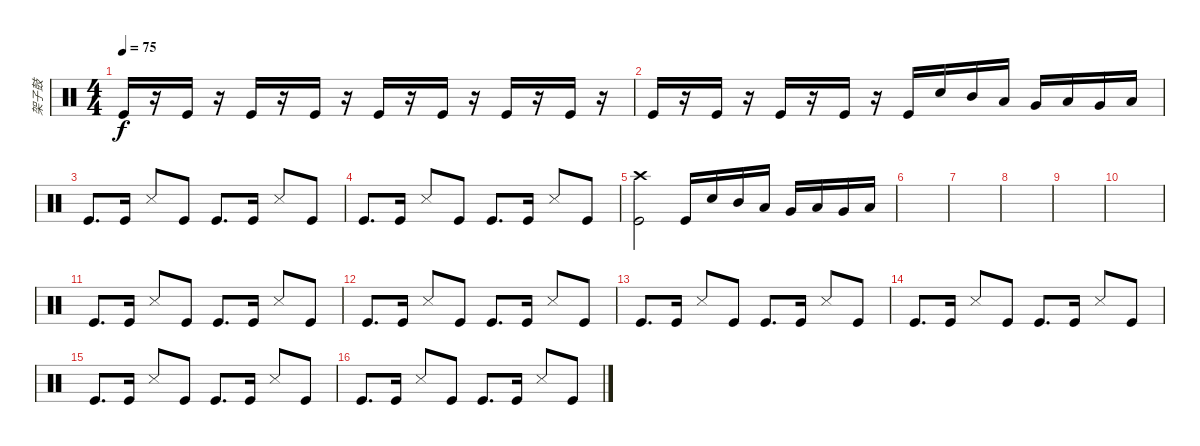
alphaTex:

\track ("架子鼓" "架子鼓") {instrument percussion}
\staff {score}
\articulation defaults
\ts (4 4)
\tempo 75
\clef neutral
\ks c "Kick (hit)".16{dy f}
r.16 "Kick (hit)".16 r.16 "Kick (hit)".16 r.16 "Kick (hit)".16 r.16 "Kick (hit)".16 r.16 "Kick (hit)".16 r.16 "Kick (hit)".16 r.16 "Kick (hit)".16 r.16 |
"Kick (hit)".16 r.16 "Kick (hit)".16 r.16 "Kick (hit)".16 r.16 "Kick (hit)".16 r.16 "Kick (hit)".16 "Snare (hit) 2".16 "Mid Tom (hit)".16 "Low Tom (hit)".16 "Very Low Tom (hit)".16 "Low Tom (hit)".16 "Very Low Tom (hit)".16 "Low Floor Tom (hit)".16 |
"Kick (hit)".8{d} "Kick (hit)".16 "Snare (side stick) 3".8 "Kick (hit)".8 "Kick (hit)".8{d} "Kick (hit)".16 "Snare (side stick) 3".8 "Kick (hit)".8 |
"Kick (hit)".8{d} "Kick (hit)".16 "Snare (side stick) 3".8 "Kick (hit)".8 "Kick (hit)".8{d} "Kick (hit)".16 "Snare (side stick) 3".8 "Kick (hit)".8 |
("Kick (hit)" "Crash high (hit)").2 "Kick (hit)".16 "Snare (hit) 2".16 "Mid Tom (hit)".16 "Low Tom (hit)".16 "Very Low Tom (hit)".16 "Low Tom (hit)".16 "Very Low Tom (hit)".16 "Low Floor Tom (hit)".16 |
|
|
|
|
|
"Kick (hit)".8{d} "Kick (hit)".16 "Snare (side stick) 3".8 "Kick (hit)".8 "Kick (hit)".8{d} "Kick (hit)".16 "Snare (side stick) 3".8 "Kick (hit)".8 |
"Kick (hit)".8{d} "Kick (hit)".16 "Snare (side stick) 3".8 "Kick (hit)".8 "Kick (hit)".8{d} "Kick (hit)".16 "Snare (side stick) 3".8 "Kick (hit)".8 |
"Kick (hit)".8{d} "Kick (hit)".16 "Snare (side stick) 3".8 "Kick (hit)".8 "Kick (hit)".8{d} "Kick (hit)".16 "Snare (side stick) 3".8 "Kick (hit)".8 |
"Kick (hit)".8{d} "Kick (hit)".16 "Snare (side stick) 3".8 "Kick (hit)".8 "Kick (hit)".8{d} "Kick (hit)".16 "Snare (side stick) 3".8 "Kick (hit)".8 |
"Kick (hit)".8{d} "Kick (hit)".16 "Snare (side stick) 3".8 "Kick (hit)".8 "Kick (hit)".8{d} "Kick (hit)".16 "Snare (side stick) 3".8 "Kick (hit)".8 |
"Kick (hit)".8{d} "Kick (hit)".16 "Snare (side stick) 3".8 "Kick (hit)".8 "Kick (hit)".8{d} "Kick (hit)".16 "Snare (side stick) 3".8 "Kick (hit)".8
